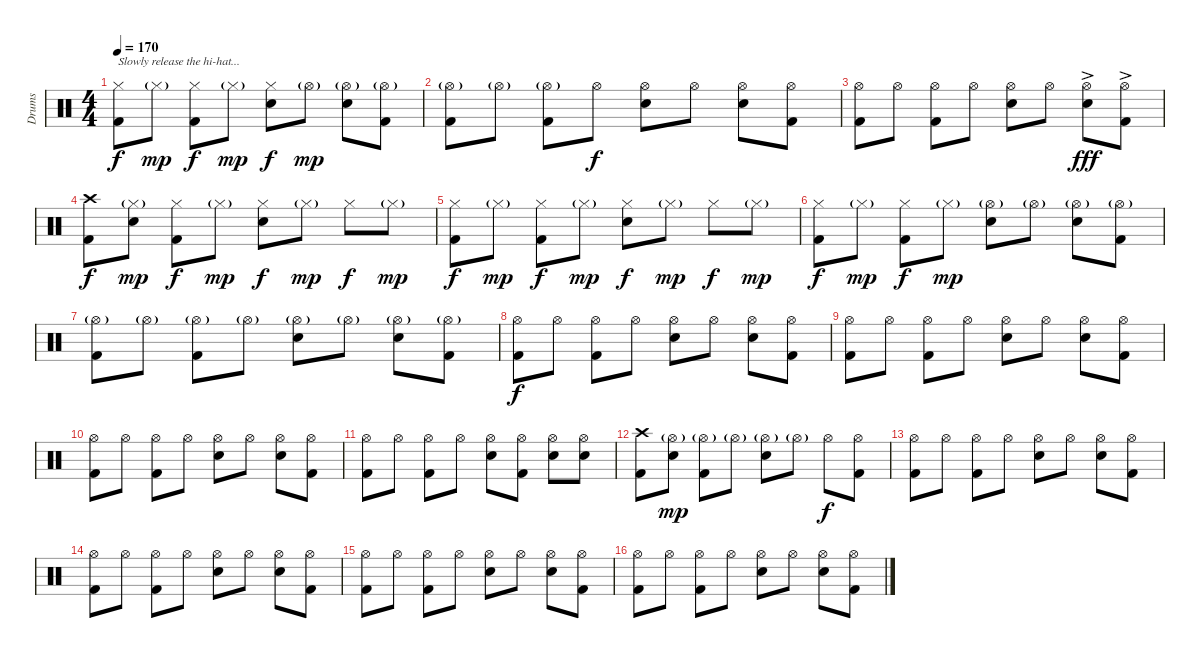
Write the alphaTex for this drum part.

\track ("Drums" "Drums") {instrument percussion}
\staff {score}
\articulation defaults
\ts (4 4)
\tempo 170
\clef neutral
\ks c
("Hi-Hat (closed)" "Kick (hit) 2").8{txt "Slowly release the hi-hat..." dy f} "Hi-Hat (closed)"{g}.8{dy mp} ("Hi-Hat (closed)" "Kick (hit) 2").8{dy f} "Hi-Hat (closed)"{g}.8{dy mp} ("Hi-Hat (closed)" "Snare (hit) 2").8{dy f} "Hi-Hat (open)"{g}.8{dy mp} ("Hi-Hat (open)"{g} "Snare (hit) 2").8 ("Hi-Hat (open)"{g} "Kick (hit) 2").8 |
("Hi-Hat (open)"{g} "Kick (hit) 2").8 "Hi-Hat (open)"{g}.8 ("Hi-Hat (open)"{g} "Kick (hit) 2").8 "Hi-Hat (open)".8{dy f} ("Hi-Hat (open)" "Snare (hit) 2").8 "Hi-Hat (open)".8 ("Hi-Hat (open)" "Snare (hit) 2").8 ("Hi-Hat (open)" "Kick (hit) 2").8 |
("Hi-Hat (open)" "Kick (hit) 2").8 "Hi-Hat (open)".8 ("Hi-Hat (open)" "Kick (hit) 2").8 "Hi-Hat (open)".8 ("Hi-Hat (open)" "Snare (hit) 2").8 "Hi-Hat (open)".8 ("Hi-Hat (open)"{ac} "Snare (hit) 2").8{dy fff} ("Hi-Hat (open)"{ac} "Kick (hit) 2").8 |
("Crash high (hit)" "Kick (hit) 2").8{dy f} ("Hi-Hat (closed)"{g} "Snare (hit) 2").8{dy mp} ("Hi-Hat (closed)" "Kick (hit) 2").8{dy f} "Hi-Hat (closed)"{g}.8{dy mp} ("Hi-Hat (closed)" "Snare (hit) 2").8{dy f} "Hi-Hat (closed)"{g}.8{dy mp} "Hi-Hat (closed)".8{dy f} "Hi-Hat (closed)"{g}.8{dy mp} |
("Hi-Hat (closed)" "Kick (hit) 2").8{dy f} "Hi-Hat (closed)"{g}.8{dy mp} ("Hi-Hat (closed)" "Kick (hit) 2").8{dy f} "Hi-Hat (closed)"{g}.8{dy mp} ("Hi-Hat (closed)" "Snare (hit) 2").8{dy f} "Hi-Hat (closed)"{g}.8{dy mp} "Hi-Hat (closed)".8{dy f} "Hi-Hat (closed)"{g}.8{dy mp} |
("Hi-Hat (closed)" "Kick (hit) 2").8{dy f} "Hi-Hat (closed)"{g}.8{dy mp} ("Hi-Hat (closed)" "Kick (hit) 2").8{dy f} "Hi-Hat (closed)"{g}.8{dy mp} ("Hi-Hat (open)"{g} "Snare (hit) 2").8 "Hi-Hat (open)"{g}.8 ("Hi-Hat (open)"{g} "Snare (hit) 2").8 ("Hi-Hat (open)"{g} "Kick (hit) 2").8 |
("Hi-Hat (open)"{g} "Kick (hit) 2").8 "Hi-Hat (open)"{g}.8 ("Hi-Hat (open)"{g} "Kick (hit) 2").8 "Hi-Hat (open)"{g}.8 ("Hi-Hat (open)"{g} "Snare (hit) 2").8 "Hi-Hat (open)"{g}.8 ("Hi-Hat (open)"{g} "Snare (hit) 2").8 ("Hi-Hat (open)"{g} "Kick (hit) 2").8 |
("Hi-Hat (open)" "Kick (hit) 2").8{dy f} "Hi-Hat (open)".8 ("Hi-Hat (open)" "Kick (hit) 2").8 "Hi-Hat (open)".8 ("Hi-Hat (open)" "Snare (hit) 2").8 "Hi-Hat (open)".8 ("Hi-Hat (open)" "Snare (hit) 2").8 ("Hi-Hat (open)" "Kick (hit) 2").8 |
("Hi-Hat (open)" "Kick (hit) 2").8 "Hi-Hat (open)".8 ("Hi-Hat (open)" "Kick (hit) 2").8 "Hi-Hat (open)".8 ("Hi-Hat (open)" "Snare (hit) 2").8 "Hi-Hat (open)".8 ("Hi-Hat (open)" "Snare (hit) 2").8 ("Hi-Hat (open)" "Kick (hit) 2").8 |
("Hi-Hat (open)" "Kick (hit) 2").8 "Hi-Hat (open)".8 ("Hi-Hat (open)" "Kick (hit) 2").8 "Hi-Hat (open)".8 ("Hi-Hat (open)" "Snare (hit) 2").8 "Hi-Hat (open)".8 ("Hi-Hat (open)" "Snare (hit) 2").8 ("Hi-Hat (open)" "Kick (hit) 2").8 |
("Hi-Hat (open)" "Kick (hit) 2").8 "Hi-Hat (open)".8 ("Hi-Hat (open)" "Kick (hit) 2").8 "Hi-Hat (open)".8 ("Hi-Hat (open)" "Snare (hit) 2").8 ("Hi-Hat (open)" "Kick (hit) 2").8 ("Hi-Hat (open)" "Snare (hit) 2").8 ("Hi-Hat (open)" "Snare (hit) 2").8 |
("Crash high (hit)" "Kick (hit) 2").8 ("Hi-Hat (open)"{g} "Snare (hit) 2").8{dy mp} ("Hi-Hat (open)"{g} "Kick (hit) 2").8 "Hi-Hat (open)"{g}.8 ("Hi-Hat (open)"{g} "Snare (hit) 2").8 "Hi-Hat (open)"{g}.8 "Hi-Hat (open)".8{dy f} ("Hi-Hat (open)" "Kick (hit) 2").8 |
("Hi-Hat (open)" "Kick (hit) 2").8 "Hi-Hat (open)".8 ("Hi-Hat (open)" "Kick (hit) 2").8 "Hi-Hat (open)".8 ("Hi-Hat (open)" "Snare (hit) 2").8 "Hi-Hat (open)".8 ("Hi-Hat (open)" "Snare (hit) 2").8 ("Hi-Hat (open)" "Kick (hit) 2").8 |
("Hi-Hat (open)" "Kick (hit) 2").8 "Hi-Hat (open)".8 ("Hi-Hat (open)" "Kick (hit) 2").8 "Hi-Hat (open)".8 ("Hi-Hat (open)" "Snare (hit) 2").8 "Hi-Hat (open)".8 ("Hi-Hat (open)" "Snare (hit) 2").8 ("Hi-Hat (open)" "Kick (hit) 2").8 |
("Hi-Hat (open)" "Kick (hit) 2").8 "Hi-Hat (open)".8 ("Hi-Hat (open)" "Kick (hit) 2").8 "Hi-Hat (open)".8 ("Hi-Hat (open)" "Snare (hit) 2").8 "Hi-Hat (open)".8 ("Hi-Hat (open)" "Snare (hit) 2").8 ("Hi-Hat (open)" "Kick (hit) 2").8 |
("Hi-Hat (open)" "Kick (hit) 2").8 "Hi-Hat (open)".8 ("Hi-Hat (open)" "Kick (hit) 2").8 "Hi-Hat (open)".8 ("Hi-Hat (open)" "Snare (hit) 2").8 "Hi-Hat (open)".8 ("Hi-Hat (open)" "Snare (hit) 2").8 ("Hi-Hat (open)" "Kick (hit) 2").8
